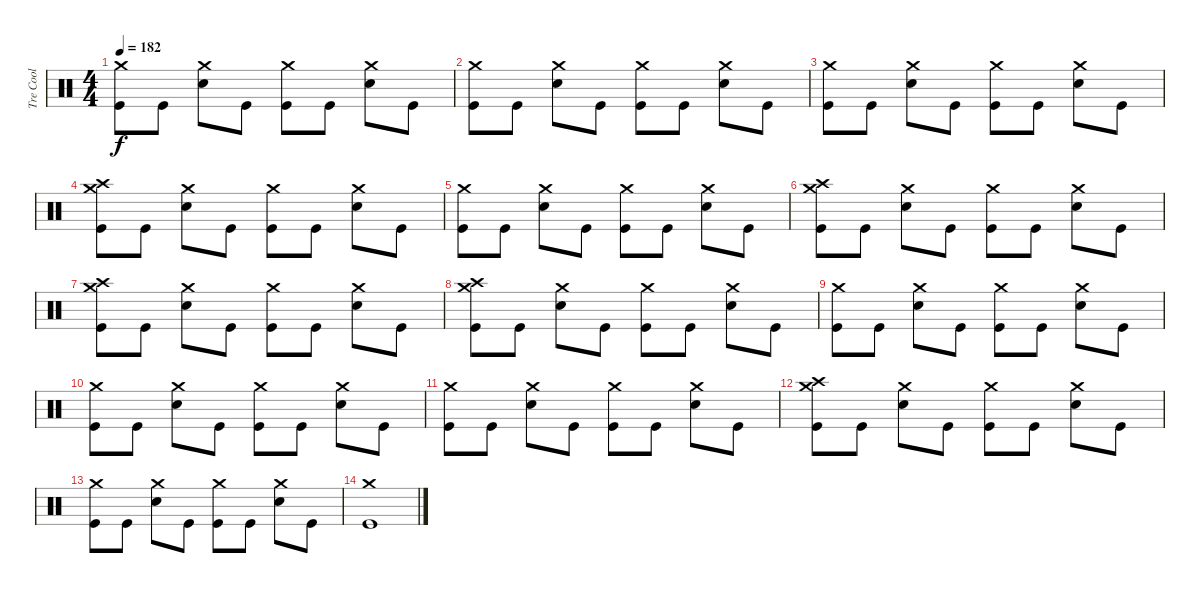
\track ("Tre Cool" "Tre Cool") {instrument percussion}
\staff {score}
\articulation defaults
\ts (4 4)
\tempo 182
\clef neutral
\ks c
("Crash medium (hit)" "Kick (hit)").8{dy f} "Kick (hit)".8 ("Crash medium (hit)" "Snare (hit) 2").8 "Kick (hit)".8 ("Crash medium (hit)" "Kick (hit)").8 "Kick (hit)".8 ("Crash medium (hit)" "Snare (hit) 2").8 "Kick (hit)".8 |
("Crash medium (hit)" "Kick (hit)").8 "Kick (hit)".8 ("Crash medium (hit)" "Snare (hit) 2").8 "Kick (hit)".8 ("Crash medium (hit)" "Kick (hit)").8 "Kick (hit)".8 ("Crash medium (hit)" "Snare (hit) 2").8 "Kick (hit)".8 |
("Crash medium (hit)" "Kick (hit)").8 "Kick (hit)".8 ("Crash medium (hit)" "Snare (hit) 2").8 "Kick (hit)".8 ("Crash medium (hit)" "Kick (hit)").8 "Kick (hit)".8 ("Crash medium (hit)" "Snare (hit) 2").8 "Kick (hit)".8 |
("Crash medium (hit)" "Crash high (hit)" "Kick (hit)").8 "Kick (hit)".8 ("Crash medium (hit)" "Snare (hit) 2").8 "Kick (hit)".8 ("Crash medium (hit)" "Kick (hit)").8 "Kick (hit)".8 ("Crash medium (hit)" "Snare (hit) 2").8 "Kick (hit)".8 |
("Crash medium (hit)" "Kick (hit)").8 "Kick (hit)".8 ("Crash medium (hit)" "Snare (hit) 2").8 "Kick (hit)".8 ("Crash medium (hit)" "Kick (hit)").8 "Kick (hit)".8 ("Crash medium (hit)" "Snare (hit) 2").8 "Kick (hit)".8 |
("Crash medium (hit)" "Crash high (hit)" "Kick (hit)").8 "Kick (hit)".8 ("Crash medium (hit)" "Snare (hit) 2").8 "Kick (hit)".8 ("Crash medium (hit)" "Kick (hit)").8 "Kick (hit)".8 ("Crash medium (hit)" "Snare (hit) 2").8 "Kick (hit)".8 |
("Crash medium (hit)" "Crash high (hit)" "Kick (hit)").8 "Kick (hit)".8 ("Crash medium (hit)" "Snare (hit) 2").8 "Kick (hit)".8 ("Crash medium (hit)" "Kick (hit)").8 "Kick (hit)".8 ("Crash medium (hit)" "Snare (hit) 2").8 "Kick (hit)".8 |
("Crash medium (hit)" "Crash high (hit)" "Kick (hit)").8 "Kick (hit)".8 ("Crash medium (hit)" "Snare (hit) 2").8 "Kick (hit)".8 ("Crash medium (hit)" "Kick (hit)").8 "Kick (hit)".8 ("Crash medium (hit)" "Snare (hit) 2").8 "Kick (hit)".8 |
("Crash medium (hit)" "Kick (hit)").8 "Kick (hit)".8 ("Crash medium (hit)" "Snare (hit) 2").8 "Kick (hit)".8 ("Crash medium (hit)" "Kick (hit)").8 "Kick (hit)".8 ("Crash medium (hit)" "Snare (hit) 2").8 "Kick (hit)".8 |
("Crash medium (hit)" "Kick (hit)").8 "Kick (hit)".8 ("Crash medium (hit)" "Snare (hit) 2").8 "Kick (hit)".8 ("Crash medium (hit)" "Kick (hit)").8 "Kick (hit)".8 ("Crash medium (hit)" "Snare (hit) 2").8 "Kick (hit)".8 |
("Crash medium (hit)" "Kick (hit)").8 "Kick (hit)".8 ("Crash medium (hit)" "Snare (hit) 2").8 "Kick (hit)".8 ("Crash medium (hit)" "Kick (hit)").8 "Kick (hit)".8 ("Crash medium (hit)" "Snare (hit) 2").8 "Kick (hit)".8 |
("Crash medium (hit)" "Crash high (hit)" "Kick (hit)").8 "Kick (hit)".8 ("Crash medium (hit)" "Snare (hit) 2").8 "Kick (hit)".8 ("Crash medium (hit)" "Kick (hit)").8 "Kick (hit)".8 ("Crash medium (hit)" "Snare (hit) 2").8 "Kick (hit)".8 |
("Crash medium (hit)" "Kick (hit)").8 "Kick (hit)".8 ("Crash medium (hit)" "Snare (hit) 2").8 "Kick (hit)".8 ("Crash medium (hit)" "Kick (hit)").8 "Kick (hit)".8 ("Crash medium (hit)" "Snare (hit) 2").8 "Kick (hit)".8 |
("Crash medium (hit)" "Kick (hit)").1
